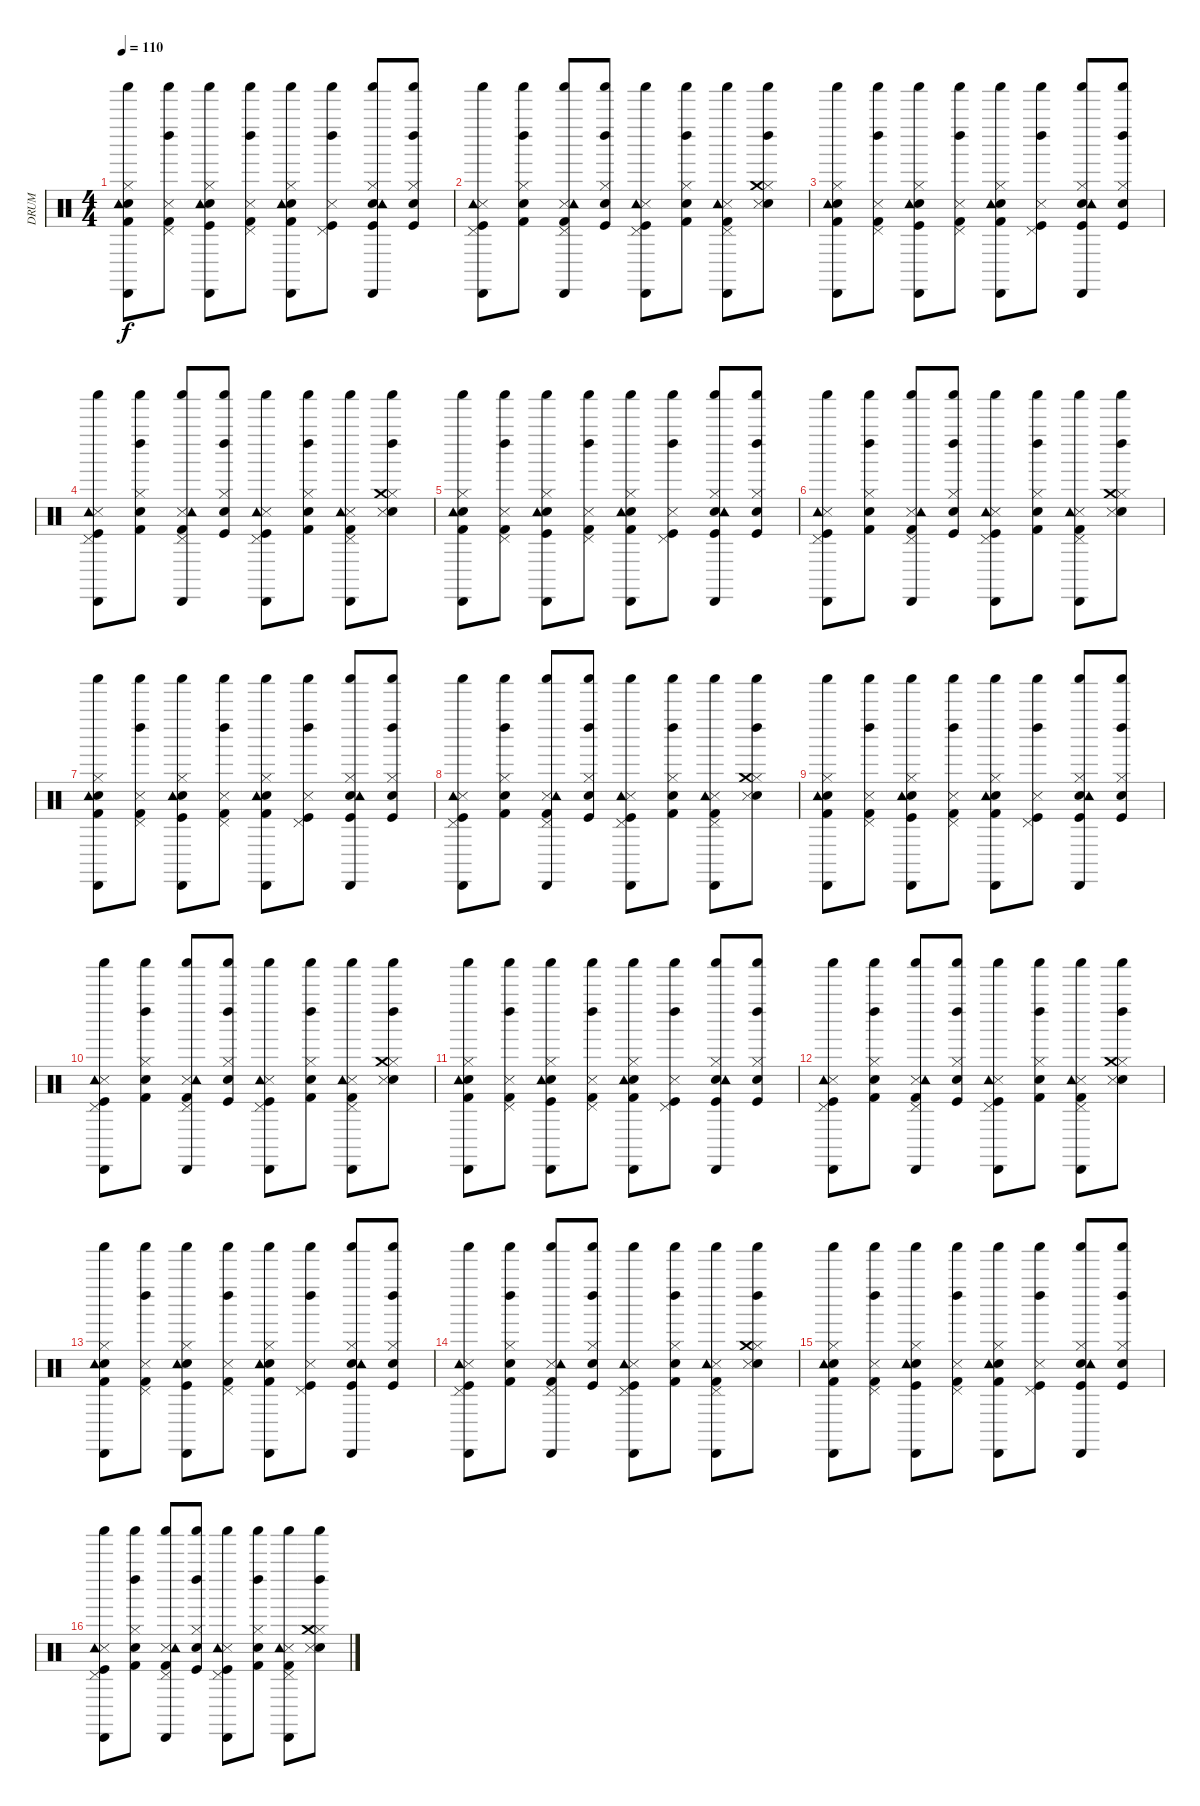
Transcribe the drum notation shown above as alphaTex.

\track ("DRUM" "DRUM") {instrument percussion}
\staff {score}
\articulation defaults
\ts (4 4)
\tempo 110
\clef neutral
\ks c
("Kick (hit) 2" "Snare (hit) 2" "Hi-Hat (closed)" "Shaker (hit)" "Cabasa (hit)" "Tambourine (hit)").8{dy f} ("Kick (hit) 2" "Snare (side stick) 3" "Pedal Hi-Hat (hit)" "Shaker (hit)" "Left Maraca (hit)").8 ("Kick (hit)" "Snare (hit) 2" "Hi-Hat (closed)" "Shaker (hit)" "Cabasa (hit)" "Tambourine (hit)").8 ("Kick (hit) 2" "Snare (side stick) 3" "Pedal Hi-Hat (hit)" "Shaker (hit)" "Left Maraca (hit)").8 ("Kick (hit) 2" "Snare (hit) 2" "Hi-Hat (closed)" "Shaker (hit)" "Cabasa (hit)" "Tambourine (hit)").8 ("Kick (hit)" "Snare (side stick) 3" "Pedal Hi-Hat (hit)" "Shaker (hit)" "Left Maraca (hit)").8 ("Kick (hit)" "Snare (hit) 2" "Hi-Hat (closed)" "Shaker (hit)" "Cabasa (hit)" "Tambourine (hit)").8 ("Kick (hit)" "Snare (hit) 2" "Hi-Hat (closed)" "Shaker (hit)" "Left Maraca (hit)").8 |
("Kick (hit)" "Snare (side stick) 3" "Pedal Hi-Hat (hit)" "Shaker (hit)" "Cabasa (hit)" "Tambourine (hit)").8 ("Kick (hit) 2" "Snare (hit) 2" "Hi-Hat (closed)" "Shaker (hit)" "Left Maraca (hit)").8 ("Kick (hit) 2" "Snare (side stick) 3" "Pedal Hi-Hat (hit)" "Shaker (hit)" "Cabasa (hit)" "Tambourine (hit)").8 ("Kick (hit)" "Snare (hit) 2" "Hi-Hat (closed)" "Shaker (hit)" "Left Maraca (hit)").8 ("Kick (hit)" "Snare (side stick) 3" "Pedal Hi-Hat (hit)" "Shaker (hit)" "Cabasa (hit)" "Tambourine (hit)").8 ("Kick (hit) 2" "Snare (hit) 2" "Hi-Hat (closed)" "Shaker (hit)" "Left Maraca (hit)").8 ("Kick (hit) 2" "Snare (side stick) 3" "Pedal Hi-Hat (hit)" "Shaker (hit)" "Cabasa (hit)" "Tambourine (hit)").8 ("Electric Snare (hit)" "Snare (side stick) 3" "Hi-Hat (closed)" "Shaker (hit)" "Left Maraca (hit)" "Crash medium (hit)").8 |
("Kick (hit) 2" "Snare (hit) 2" "Hi-Hat (closed)" "Shaker (hit)" "Cabasa (hit)" "Tambourine (hit)").8 ("Kick (hit) 2" "Snare (side stick) 3" "Pedal Hi-Hat (hit)" "Shaker (hit)" "Left Maraca (hit)").8 ("Kick (hit)" "Snare (hit) 2" "Hi-Hat (closed)" "Shaker (hit)" "Cabasa (hit)" "Tambourine (hit)").8 ("Kick (hit) 2" "Snare (side stick) 3" "Pedal Hi-Hat (hit)" "Shaker (hit)" "Left Maraca (hit)").8 ("Kick (hit) 2" "Snare (hit) 2" "Hi-Hat (closed)" "Shaker (hit)" "Cabasa (hit)" "Tambourine (hit)").8 ("Kick (hit)" "Snare (side stick) 3" "Pedal Hi-Hat (hit)" "Shaker (hit)" "Left Maraca (hit)").8 ("Kick (hit)" "Snare (hit) 2" "Hi-Hat (closed)" "Shaker (hit)" "Cabasa (hit)" "Tambourine (hit)").8 ("Kick (hit)" "Snare (hit) 2" "Hi-Hat (closed)" "Shaker (hit)" "Left Maraca (hit)").8 |
("Kick (hit)" "Snare (side stick) 3" "Pedal Hi-Hat (hit)" "Shaker (hit)" "Cabasa (hit)" "Tambourine (hit)").8 ("Kick (hit) 2" "Snare (hit) 2" "Hi-Hat (closed)" "Shaker (hit)" "Left Maraca (hit)").8 ("Kick (hit) 2" "Snare (side stick) 3" "Pedal Hi-Hat (hit)" "Shaker (hit)" "Cabasa (hit)" "Tambourine (hit)").8 ("Kick (hit)" "Snare (hit) 2" "Hi-Hat (closed)" "Shaker (hit)" "Left Maraca (hit)").8 ("Kick (hit)" "Snare (side stick) 3" "Pedal Hi-Hat (hit)" "Shaker (hit)" "Cabasa (hit)" "Tambourine (hit)").8 ("Kick (hit) 2" "Snare (hit) 2" "Hi-Hat (closed)" "Shaker (hit)" "Left Maraca (hit)").8 ("Kick (hit) 2" "Snare (side stick) 3" "Pedal Hi-Hat (hit)" "Shaker (hit)" "Cabasa (hit)" "Tambourine (hit)").8 ("Electric Snare (hit)" "Snare (side stick) 3" "Hi-Hat (closed)" "Shaker (hit)" "Left Maraca (hit)" "Crash medium (hit)").8 |
("Kick (hit) 2" "Snare (hit) 2" "Hi-Hat (closed)" "Shaker (hit)" "Cabasa (hit)" "Tambourine (hit)").8 ("Kick (hit) 2" "Snare (side stick) 3" "Pedal Hi-Hat (hit)" "Shaker (hit)" "Left Maraca (hit)").8 ("Kick (hit)" "Snare (hit) 2" "Hi-Hat (closed)" "Shaker (hit)" "Cabasa (hit)" "Tambourine (hit)").8 ("Kick (hit) 2" "Snare (side stick) 3" "Pedal Hi-Hat (hit)" "Shaker (hit)" "Left Maraca (hit)").8 ("Kick (hit) 2" "Snare (hit) 2" "Hi-Hat (closed)" "Shaker (hit)" "Cabasa (hit)" "Tambourine (hit)").8 ("Kick (hit)" "Snare (side stick) 3" "Pedal Hi-Hat (hit)" "Shaker (hit)" "Left Maraca (hit)").8 ("Kick (hit)" "Snare (hit) 2" "Hi-Hat (closed)" "Shaker (hit)" "Cabasa (hit)" "Tambourine (hit)").8 ("Kick (hit)" "Snare (hit) 2" "Hi-Hat (closed)" "Shaker (hit)" "Left Maraca (hit)").8 |
("Kick (hit)" "Snare (side stick) 3" "Pedal Hi-Hat (hit)" "Shaker (hit)" "Cabasa (hit)" "Tambourine (hit)").8 ("Kick (hit) 2" "Snare (hit) 2" "Hi-Hat (closed)" "Shaker (hit)" "Left Maraca (hit)").8 ("Kick (hit) 2" "Snare (side stick) 3" "Pedal Hi-Hat (hit)" "Shaker (hit)" "Cabasa (hit)" "Tambourine (hit)").8 ("Kick (hit)" "Snare (hit) 2" "Hi-Hat (closed)" "Shaker (hit)" "Left Maraca (hit)").8 ("Kick (hit)" "Snare (side stick) 3" "Pedal Hi-Hat (hit)" "Shaker (hit)" "Cabasa (hit)" "Tambourine (hit)").8 ("Kick (hit) 2" "Snare (hit) 2" "Hi-Hat (closed)" "Shaker (hit)" "Left Maraca (hit)").8 ("Kick (hit) 2" "Snare (side stick) 3" "Pedal Hi-Hat (hit)" "Shaker (hit)" "Cabasa (hit)" "Tambourine (hit)").8 ("Electric Snare (hit)" "Snare (side stick) 3" "Hi-Hat (closed)" "Shaker (hit)" "Left Maraca (hit)" "Crash medium (hit)").8 |
("Kick (hit) 2" "Snare (hit) 2" "Hi-Hat (closed)" "Shaker (hit)" "Cabasa (hit)" "Tambourine (hit)").8 ("Kick (hit) 2" "Snare (side stick) 3" "Pedal Hi-Hat (hit)" "Shaker (hit)" "Left Maraca (hit)").8 ("Kick (hit)" "Snare (hit) 2" "Hi-Hat (closed)" "Shaker (hit)" "Cabasa (hit)" "Tambourine (hit)").8 ("Kick (hit) 2" "Snare (side stick) 3" "Pedal Hi-Hat (hit)" "Shaker (hit)" "Left Maraca (hit)").8 ("Kick (hit) 2" "Snare (hit) 2" "Hi-Hat (closed)" "Shaker (hit)" "Cabasa (hit)" "Tambourine (hit)").8 ("Kick (hit)" "Snare (side stick) 3" "Pedal Hi-Hat (hit)" "Shaker (hit)" "Left Maraca (hit)").8 ("Kick (hit)" "Snare (hit) 2" "Hi-Hat (closed)" "Shaker (hit)" "Cabasa (hit)" "Tambourine (hit)").8 ("Kick (hit)" "Snare (hit) 2" "Hi-Hat (closed)" "Shaker (hit)" "Left Maraca (hit)").8 |
("Kick (hit)" "Snare (side stick) 3" "Pedal Hi-Hat (hit)" "Shaker (hit)" "Cabasa (hit)" "Tambourine (hit)").8 ("Kick (hit) 2" "Snare (hit) 2" "Hi-Hat (closed)" "Shaker (hit)" "Left Maraca (hit)").8 ("Kick (hit) 2" "Snare (side stick) 3" "Pedal Hi-Hat (hit)" "Shaker (hit)" "Cabasa (hit)" "Tambourine (hit)").8 ("Kick (hit)" "Snare (hit) 2" "Hi-Hat (closed)" "Shaker (hit)" "Left Maraca (hit)").8 ("Kick (hit)" "Snare (side stick) 3" "Pedal Hi-Hat (hit)" "Shaker (hit)" "Cabasa (hit)" "Tambourine (hit)").8 ("Kick (hit) 2" "Snare (hit) 2" "Hi-Hat (closed)" "Shaker (hit)" "Left Maraca (hit)").8 ("Kick (hit) 2" "Snare (side stick) 3" "Pedal Hi-Hat (hit)" "Shaker (hit)" "Cabasa (hit)" "Tambourine (hit)").8 ("Electric Snare (hit)" "Snare (side stick) 3" "Hi-Hat (closed)" "Shaker (hit)" "Left Maraca (hit)" "Crash medium (hit)").8 |
("Kick (hit) 2" "Snare (hit) 2" "Hi-Hat (closed)" "Shaker (hit)" "Cabasa (hit)" "Tambourine (hit)").8 ("Kick (hit) 2" "Snare (side stick) 3" "Pedal Hi-Hat (hit)" "Shaker (hit)" "Left Maraca (hit)").8 ("Kick (hit)" "Snare (hit) 2" "Hi-Hat (closed)" "Shaker (hit)" "Cabasa (hit)" "Tambourine (hit)").8 ("Kick (hit) 2" "Snare (side stick) 3" "Pedal Hi-Hat (hit)" "Shaker (hit)" "Left Maraca (hit)").8 ("Kick (hit) 2" "Snare (hit) 2" "Hi-Hat (closed)" "Shaker (hit)" "Cabasa (hit)" "Tambourine (hit)").8 ("Kick (hit)" "Snare (side stick) 3" "Pedal Hi-Hat (hit)" "Shaker (hit)" "Left Maraca (hit)").8 ("Kick (hit)" "Snare (hit) 2" "Hi-Hat (closed)" "Shaker (hit)" "Cabasa (hit)" "Tambourine (hit)").8 ("Kick (hit)" "Snare (hit) 2" "Hi-Hat (closed)" "Shaker (hit)" "Left Maraca (hit)").8 |
("Kick (hit)" "Snare (side stick) 3" "Pedal Hi-Hat (hit)" "Shaker (hit)" "Cabasa (hit)" "Tambourine (hit)").8 ("Kick (hit) 2" "Snare (hit) 2" "Hi-Hat (closed)" "Shaker (hit)" "Left Maraca (hit)").8 ("Kick (hit) 2" "Snare (side stick) 3" "Pedal Hi-Hat (hit)" "Shaker (hit)" "Cabasa (hit)" "Tambourine (hit)").8 ("Kick (hit)" "Snare (hit) 2" "Hi-Hat (closed)" "Shaker (hit)" "Left Maraca (hit)").8 ("Kick (hit)" "Snare (side stick) 3" "Pedal Hi-Hat (hit)" "Shaker (hit)" "Cabasa (hit)" "Tambourine (hit)").8 ("Kick (hit) 2" "Snare (hit) 2" "Hi-Hat (closed)" "Shaker (hit)" "Left Maraca (hit)").8 ("Kick (hit) 2" "Snare (side stick) 3" "Pedal Hi-Hat (hit)" "Shaker (hit)" "Cabasa (hit)" "Tambourine (hit)").8 ("Electric Snare (hit)" "Snare (side stick) 3" "Hi-Hat (closed)" "Shaker (hit)" "Left Maraca (hit)" "Crash medium (hit)").8 |
("Kick (hit) 2" "Snare (hit) 2" "Hi-Hat (closed)" "Shaker (hit)" "Cabasa (hit)" "Tambourine (hit)").8 ("Kick (hit) 2" "Snare (side stick) 3" "Pedal Hi-Hat (hit)" "Shaker (hit)" "Left Maraca (hit)").8 ("Kick (hit)" "Snare (hit) 2" "Hi-Hat (closed)" "Shaker (hit)" "Cabasa (hit)" "Tambourine (hit)").8 ("Kick (hit) 2" "Snare (side stick) 3" "Pedal Hi-Hat (hit)" "Shaker (hit)" "Left Maraca (hit)").8 ("Kick (hit) 2" "Snare (hit) 2" "Hi-Hat (closed)" "Shaker (hit)" "Cabasa (hit)" "Tambourine (hit)").8 ("Kick (hit)" "Snare (side stick) 3" "Pedal Hi-Hat (hit)" "Shaker (hit)" "Left Maraca (hit)").8 ("Kick (hit)" "Snare (hit) 2" "Hi-Hat (closed)" "Shaker (hit)" "Cabasa (hit)" "Tambourine (hit)").8 ("Kick (hit)" "Snare (hit) 2" "Hi-Hat (closed)" "Shaker (hit)" "Left Maraca (hit)").8 |
("Kick (hit)" "Snare (side stick) 3" "Pedal Hi-Hat (hit)" "Shaker (hit)" "Cabasa (hit)" "Tambourine (hit)").8 ("Kick (hit) 2" "Snare (hit) 2" "Hi-Hat (closed)" "Shaker (hit)" "Left Maraca (hit)").8 ("Kick (hit) 2" "Snare (side stick) 3" "Pedal Hi-Hat (hit)" "Shaker (hit)" "Cabasa (hit)" "Tambourine (hit)").8 ("Kick (hit)" "Snare (hit) 2" "Hi-Hat (closed)" "Shaker (hit)" "Left Maraca (hit)").8 ("Kick (hit)" "Snare (side stick) 3" "Pedal Hi-Hat (hit)" "Shaker (hit)" "Cabasa (hit)" "Tambourine (hit)").8 ("Kick (hit) 2" "Snare (hit) 2" "Hi-Hat (closed)" "Shaker (hit)" "Left Maraca (hit)").8 ("Kick (hit) 2" "Snare (side stick) 3" "Pedal Hi-Hat (hit)" "Shaker (hit)" "Cabasa (hit)" "Tambourine (hit)").8 ("Electric Snare (hit)" "Snare (side stick) 3" "Hi-Hat (closed)" "Shaker (hit)" "Left Maraca (hit)" "Crash medium (hit)").8 |
("Kick (hit) 2" "Snare (hit) 2" "Hi-Hat (closed)" "Shaker (hit)" "Cabasa (hit)" "Tambourine (hit)").8 ("Kick (hit) 2" "Snare (side stick) 3" "Pedal Hi-Hat (hit)" "Shaker (hit)" "Left Maraca (hit)").8 ("Kick (hit)" "Snare (hit) 2" "Hi-Hat (closed)" "Shaker (hit)" "Cabasa (hit)" "Tambourine (hit)").8 ("Kick (hit) 2" "Snare (side stick) 3" "Pedal Hi-Hat (hit)" "Shaker (hit)" "Left Maraca (hit)").8 ("Kick (hit) 2" "Snare (hit) 2" "Hi-Hat (closed)" "Shaker (hit)" "Cabasa (hit)" "Tambourine (hit)").8 ("Kick (hit)" "Snare (side stick) 3" "Pedal Hi-Hat (hit)" "Shaker (hit)" "Left Maraca (hit)").8 ("Kick (hit)" "Snare (hit) 2" "Hi-Hat (closed)" "Shaker (hit)" "Cabasa (hit)" "Tambourine (hit)").8 ("Kick (hit)" "Snare (hit) 2" "Hi-Hat (closed)" "Shaker (hit)" "Left Maraca (hit)").8 |
("Kick (hit)" "Snare (side stick) 3" "Pedal Hi-Hat (hit)" "Shaker (hit)" "Cabasa (hit)" "Tambourine (hit)").8 ("Kick (hit) 2" "Snare (hit) 2" "Hi-Hat (closed)" "Shaker (hit)" "Left Maraca (hit)").8 ("Kick (hit) 2" "Snare (side stick) 3" "Pedal Hi-Hat (hit)" "Shaker (hit)" "Cabasa (hit)" "Tambourine (hit)").8 ("Kick (hit)" "Snare (hit) 2" "Hi-Hat (closed)" "Shaker (hit)" "Left Maraca (hit)").8 ("Kick (hit)" "Snare (side stick) 3" "Pedal Hi-Hat (hit)" "Shaker (hit)" "Cabasa (hit)" "Tambourine (hit)").8 ("Kick (hit) 2" "Snare (hit) 2" "Hi-Hat (closed)" "Shaker (hit)" "Left Maraca (hit)").8 ("Kick (hit) 2" "Snare (side stick) 3" "Pedal Hi-Hat (hit)" "Shaker (hit)" "Cabasa (hit)" "Tambourine (hit)").8 ("Electric Snare (hit)" "Snare (side stick) 3" "Hi-Hat (closed)" "Shaker (hit)" "Left Maraca (hit)" "Crash medium (hit)").8 |
("Kick (hit) 2" "Snare (hit) 2" "Hi-Hat (closed)" "Shaker (hit)" "Cabasa (hit)" "Tambourine (hit)").8 ("Kick (hit) 2" "Snare (side stick) 3" "Pedal Hi-Hat (hit)" "Shaker (hit)" "Left Maraca (hit)").8 ("Kick (hit)" "Snare (hit) 2" "Hi-Hat (closed)" "Shaker (hit)" "Cabasa (hit)" "Tambourine (hit)").8 ("Kick (hit) 2" "Snare (side stick) 3" "Pedal Hi-Hat (hit)" "Shaker (hit)" "Left Maraca (hit)").8 ("Kick (hit) 2" "Snare (hit) 2" "Hi-Hat (closed)" "Shaker (hit)" "Cabasa (hit)" "Tambourine (hit)").8 ("Kick (hit)" "Snare (side stick) 3" "Pedal Hi-Hat (hit)" "Shaker (hit)" "Left Maraca (hit)").8 ("Kick (hit)" "Snare (hit) 2" "Hi-Hat (closed)" "Shaker (hit)" "Cabasa (hit)" "Tambourine (hit)").8 ("Kick (hit)" "Snare (hit) 2" "Hi-Hat (closed)" "Shaker (hit)" "Left Maraca (hit)").8 |
("Kick (hit)" "Snare (side stick) 3" "Pedal Hi-Hat (hit)" "Shaker (hit)" "Cabasa (hit)" "Tambourine (hit)").8 ("Kick (hit) 2" "Snare (hit) 2" "Hi-Hat (closed)" "Shaker (hit)" "Left Maraca (hit)").8 ("Kick (hit) 2" "Snare (side stick) 3" "Pedal Hi-Hat (hit)" "Shaker (hit)" "Cabasa (hit)" "Tambourine (hit)").8 ("Kick (hit)" "Snare (hit) 2" "Hi-Hat (closed)" "Shaker (hit)" "Left Maraca (hit)").8 ("Kick (hit)" "Snare (side stick) 3" "Pedal Hi-Hat (hit)" "Shaker (hit)" "Cabasa (hit)" "Tambourine (hit)").8 ("Kick (hit) 2" "Snare (hit) 2" "Hi-Hat (closed)" "Shaker (hit)" "Left Maraca (hit)").8 ("Kick (hit) 2" "Snare (side stick) 3" "Pedal Hi-Hat (hit)" "Shaker (hit)" "Cabasa (hit)" "Tambourine (hit)").8 ("Electric Snare (hit)" "Snare (side stick) 3" "Hi-Hat (closed)" "Shaker (hit)" "Left Maraca (hit)" "Crash medium (hit)").8
